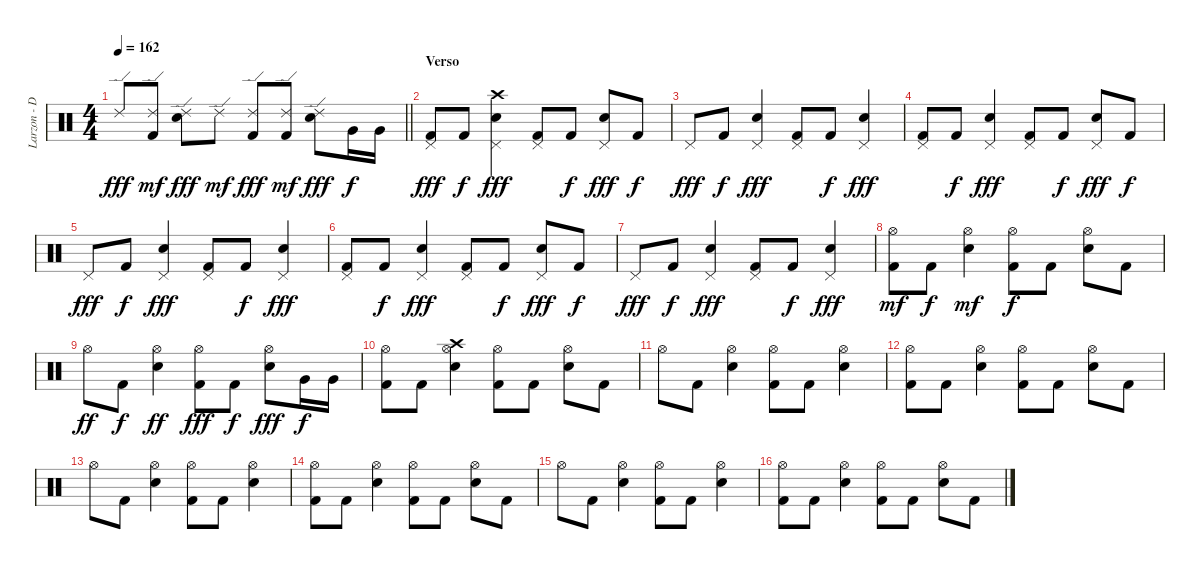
\track ("Larzon - Drums" "Larzon - D") {instrument percussion}
\staff {score}
\articulation defaults
\ts (4 4)
\tempo 162
\clef neutral
\barLineRight lightlight
\ks c "Ride (edge) 2".8{dy fff}
("Kick (hit) 2" "Ride (edge) 2").8{dy mf} ("Electric Snare (hit)" "Ride (edge) 2").8{dy fff} "Ride (edge) 2".8{dy mf} ("Kick (hit) 2" "Ride (edge) 2").8{dy fff} ("Kick (hit) 2" "Ride (edge) 2").8{dy mf} ("Electric Snare (hit)" "Ride (edge) 2").8{dy fff} "Very Low Tom (hit)".16{dy f} "Very Low Tom (hit)".16 |
\section ("" "Verso")
("Kick (hit) 2" "Pedal Hi-Hat (hit)").8{dy fff} "Kick (hit) 2".8{dy f} ("Electric Snare (hit)" "Crash high (hit)" "Pedal Hi-Hat (hit)").4{dy fff} ("Kick (hit) 2" "Pedal Hi-Hat (hit)").8 "Kick (hit) 2".8{dy f} ("Electric Snare (hit)" "Pedal Hi-Hat (hit)").8{dy fff} "Kick (hit) 2".8{dy f} |
"Pedal Hi-Hat (hit)".8{dy fff} "Kick (hit) 2".8{dy f} ("Electric Snare (hit)" "Pedal Hi-Hat (hit)").4{dy fff} ("Kick (hit) 2" "Pedal Hi-Hat (hit)").8 "Kick (hit) 2".8{dy f} ("Electric Snare (hit)" "Pedal Hi-Hat (hit)").4{dy fff} |
("Kick (hit) 2" "Pedal Hi-Hat (hit)").8 "Kick (hit) 2".8{dy f} ("Electric Snare (hit)" "Pedal Hi-Hat (hit)").4{dy fff} ("Kick (hit) 2" "Pedal Hi-Hat (hit)").8 "Kick (hit) 2".8{dy f} ("Electric Snare (hit)" "Pedal Hi-Hat (hit)").8{dy fff} "Kick (hit) 2".8{dy f} |
"Pedal Hi-Hat (hit)".8{dy fff} "Kick (hit) 2".8{dy f} ("Electric Snare (hit)" "Pedal Hi-Hat (hit)").4{dy fff} ("Kick (hit) 2" "Pedal Hi-Hat (hit)").8 "Kick (hit) 2".8{dy f} ("Electric Snare (hit)" "Pedal Hi-Hat (hit)").4{dy fff} |
("Kick (hit) 2" "Pedal Hi-Hat (hit)").8 "Kick (hit) 2".8{dy f} ("Electric Snare (hit)" "Pedal Hi-Hat (hit)").4{dy fff} ("Kick (hit) 2" "Pedal Hi-Hat (hit)").8 "Kick (hit) 2".8{dy f} ("Electric Snare (hit)" "Pedal Hi-Hat (hit)").8{dy fff} "Kick (hit) 2".8{dy f} |
"Pedal Hi-Hat (hit)".8{dy fff} "Kick (hit) 2".8{dy f} ("Electric Snare (hit)" "Pedal Hi-Hat (hit)").4{dy fff} ("Kick (hit) 2" "Pedal Hi-Hat (hit)").8 "Kick (hit) 2".8{dy f} ("Electric Snare (hit)" "Pedal Hi-Hat (hit)").4{dy fff} |
("Kick (hit) 2" "Hi-Hat (open)").8{dy mf} "Kick (hit) 2".8{dy f} ("Electric Snare (hit)" "Hi-Hat (open)").4{dy mf} ("Kick (hit) 2" "Hi-Hat (open)").8{dy f} "Kick (hit) 2".8 ("Electric Snare (hit)" "Hi-Hat (open)").8 "Kick (hit) 2".8 |
"Hi-Hat (open)".8{dy ff} "Kick (hit) 2".8{dy f} ("Electric Snare (hit)" "Hi-Hat (open)").4{dy ff} ("Kick (hit) 2" "Hi-Hat (open)").8{dy fff} "Kick (hit) 2".8{dy f} ("Electric Snare (hit)" "Hi-Hat (open)").8{dy fff} "Very Low Tom (hit)".16{dy f} "Very Low Tom (hit)".16 |
("Kick (hit) 2" "Hi-Hat (open)").8 "Kick (hit) 2".8 ("Electric Snare (hit)" "Crash high (hit)" "Hi-Hat (open)").4 ("Kick (hit) 2" "Hi-Hat (open)").8 "Kick (hit) 2".8 ("Electric Snare (hit)" "Hi-Hat (open)").8 "Kick (hit) 2".8 |
"Hi-Hat (open)".8 "Kick (hit) 2".8 ("Electric Snare (hit)" "Hi-Hat (open)").4 ("Kick (hit) 2" "Hi-Hat (open)").8 "Kick (hit) 2".8 ("Electric Snare (hit)" "Hi-Hat (open)").4 |
("Kick (hit) 2" "Hi-Hat (open)").8 "Kick (hit) 2".8 ("Electric Snare (hit)" "Hi-Hat (open)").4 ("Kick (hit) 2" "Hi-Hat (open)").8 "Kick (hit) 2".8 ("Electric Snare (hit)" "Hi-Hat (open)").8 "Kick (hit) 2".8 |
"Hi-Hat (open)".8 "Kick (hit) 2".8 ("Electric Snare (hit)" "Hi-Hat (open)").4 ("Kick (hit) 2" "Hi-Hat (open)").8 "Kick (hit) 2".8 ("Electric Snare (hit)" "Hi-Hat (open)").4 |
("Kick (hit) 2" "Hi-Hat (open)").8 "Kick (hit) 2".8 ("Electric Snare (hit)" "Hi-Hat (open)").4 ("Kick (hit) 2" "Hi-Hat (open)").8 "Kick (hit) 2".8 ("Electric Snare (hit)" "Hi-Hat (open)").8 "Kick (hit) 2".8 |
"Hi-Hat (open)".8 "Kick (hit) 2".8 ("Electric Snare (hit)" "Hi-Hat (open)").4 ("Kick (hit) 2" "Hi-Hat (open)").8 "Kick (hit) 2".8 ("Electric Snare (hit)" "Hi-Hat (open)").4 |
("Kick (hit) 2" "Hi-Hat (open)").8 "Kick (hit) 2".8 ("Electric Snare (hit)" "Hi-Hat (open)").4 ("Kick (hit) 2" "Hi-Hat (open)").8 "Kick (hit) 2".8 ("Electric Snare (hit)" "Hi-Hat (open)").8 "Kick (hit) 2".8
